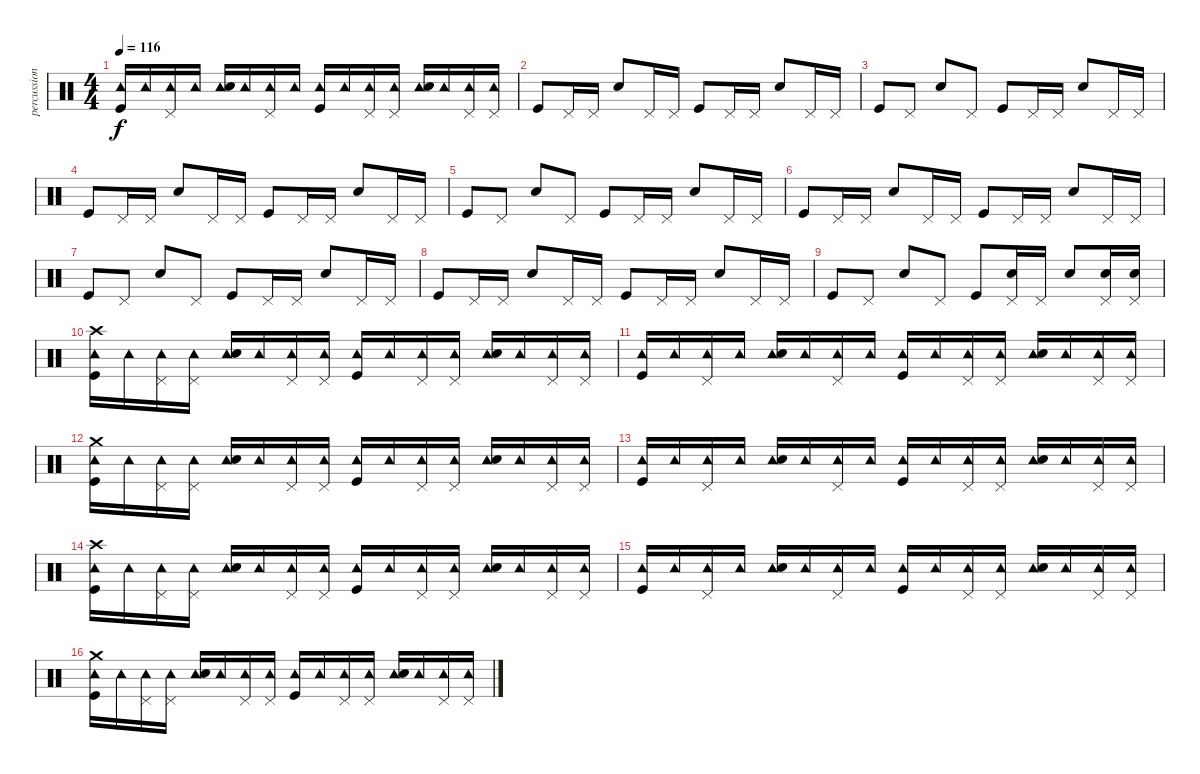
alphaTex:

\track ("percussion" "percussion") {instrument percussion}
\staff {score}
\articulation defaults
\ts (4 4)
\tempo 116
\clef neutral
\ks c
("Tambourine (hit)" "Kick (hit)").16{dy f} "Tambourine (hit)".16 ("Tambourine (hit)" "Pedal Hi-Hat (hit)").16 "Tambourine (hit)".16 ("Tambourine (hit)" "Electric Snare (hit)").16 "Tambourine (hit)".16 ("Tambourine (hit)" "Pedal Hi-Hat (hit)").16 "Tambourine (hit)".16 ("Tambourine (hit)" "Kick (hit)").16 "Tambourine (hit)".16 ("Tambourine (hit)" "Pedal Hi-Hat (hit)").16 ("Tambourine (hit)" "Pedal Hi-Hat (hit)").16 ("Tambourine (hit)" "Electric Snare (hit)").16 "Tambourine (hit)".16 ("Tambourine (hit)" "Pedal Hi-Hat (hit)").16 ("Tambourine (hit)" "Pedal Hi-Hat (hit)").16 |
"Kick (hit)".8 "Pedal Hi-Hat (hit)".16 "Pedal Hi-Hat (hit)".16 "Electric Snare (hit)".8 "Pedal Hi-Hat (hit)".16 "Pedal Hi-Hat (hit)".16 "Kick (hit)".8 "Pedal Hi-Hat (hit)".16 "Pedal Hi-Hat (hit)".16 "Electric Snare (hit)".8 "Pedal Hi-Hat (hit)".16 "Pedal Hi-Hat (hit)".16 |
"Kick (hit)".8 "Pedal Hi-Hat (hit)".8 "Electric Snare (hit)".8 "Pedal Hi-Hat (hit)".8 "Kick (hit)".8 "Pedal Hi-Hat (hit)".16 "Pedal Hi-Hat (hit)".16 "Electric Snare (hit)".8 "Pedal Hi-Hat (hit)".16 "Pedal Hi-Hat (hit)".16 |
"Kick (hit)".8 "Pedal Hi-Hat (hit)".16 "Pedal Hi-Hat (hit)".16 "Electric Snare (hit)".8 "Pedal Hi-Hat (hit)".16 "Pedal Hi-Hat (hit)".16 "Kick (hit)".8 "Pedal Hi-Hat (hit)".16 "Pedal Hi-Hat (hit)".16 "Electric Snare (hit)".8 "Pedal Hi-Hat (hit)".16 "Pedal Hi-Hat (hit)".16 |
"Kick (hit)".8 "Pedal Hi-Hat (hit)".8 "Electric Snare (hit)".8 "Pedal Hi-Hat (hit)".8 "Kick (hit)".8 "Pedal Hi-Hat (hit)".16 "Pedal Hi-Hat (hit)".16 "Electric Snare (hit)".8 "Pedal Hi-Hat (hit)".16 "Pedal Hi-Hat (hit)".16 |
"Kick (hit)".8 "Pedal Hi-Hat (hit)".16 "Pedal Hi-Hat (hit)".16 "Electric Snare (hit)".8 "Pedal Hi-Hat (hit)".16 "Pedal Hi-Hat (hit)".16 "Kick (hit)".8 "Pedal Hi-Hat (hit)".16 "Pedal Hi-Hat (hit)".16 "Electric Snare (hit)".8 "Pedal Hi-Hat (hit)".16 "Pedal Hi-Hat (hit)".16 |
"Kick (hit)".8 "Pedal Hi-Hat (hit)".8 "Electric Snare (hit)".8 "Pedal Hi-Hat (hit)".8 "Kick (hit)".8 "Pedal Hi-Hat (hit)".16 "Pedal Hi-Hat (hit)".16 "Electric Snare (hit)".8 "Pedal Hi-Hat (hit)".16 "Pedal Hi-Hat (hit)".16 |
"Kick (hit)".8 "Pedal Hi-Hat (hit)".16 "Pedal Hi-Hat (hit)".16 "Electric Snare (hit)".8 "Pedal Hi-Hat (hit)".16 "Pedal Hi-Hat (hit)".16 "Kick (hit)".8 "Pedal Hi-Hat (hit)".16 "Pedal Hi-Hat (hit)".16 "Electric Snare (hit)".8 "Pedal Hi-Hat (hit)".16 "Pedal Hi-Hat (hit)".16 |
"Kick (hit)".8 "Pedal Hi-Hat (hit)".8 "Electric Snare (hit)".8 "Pedal Hi-Hat (hit)".8 "Kick (hit)".8 ("Electric Snare (hit)" "Pedal Hi-Hat (hit)").16 "Pedal Hi-Hat (hit)".16 "Electric Snare (hit)".8 ("Electric Snare (hit)" "Pedal Hi-Hat (hit)").16 ("Electric Snare (hit)" "Pedal Hi-Hat (hit)").16 |
("Crash high (hit)" "Tambourine (hit)" "Kick (hit)").16 "Tambourine (hit)".16 ("Tambourine (hit)" "Pedal Hi-Hat (hit)").16 ("Tambourine (hit)" "Pedal Hi-Hat (hit)").16 ("Tambourine (hit)" "Electric Snare (hit)").16 "Tambourine (hit)".16 ("Tambourine (hit)" "Pedal Hi-Hat (hit)").16 ("Tambourine (hit)" "Pedal Hi-Hat (hit)").16 ("Tambourine (hit)" "Kick (hit)").16 "Tambourine (hit)".16 ("Tambourine (hit)" "Pedal Hi-Hat (hit)").16 ("Tambourine (hit)" "Pedal Hi-Hat (hit)").16 ("Tambourine (hit)" "Electric Snare (hit)").16 "Tambourine (hit)".16 ("Tambourine (hit)" "Pedal Hi-Hat (hit)").16 ("Tambourine (hit)" "Pedal Hi-Hat (hit)").16 |
("Tambourine (hit)" "Kick (hit)").16 "Tambourine (hit)".16 ("Tambourine (hit)" "Pedal Hi-Hat (hit)").16 "Tambourine (hit)".16 ("Tambourine (hit)" "Electric Snare (hit)").16 "Tambourine (hit)".16 ("Tambourine (hit)" "Pedal Hi-Hat (hit)").16 "Tambourine (hit)".16 ("Tambourine (hit)" "Kick (hit)").16 "Tambourine (hit)".16 ("Tambourine (hit)" "Pedal Hi-Hat (hit)").16 ("Tambourine (hit)" "Pedal Hi-Hat (hit)").16 ("Tambourine (hit)" "Electric Snare (hit)").16 "Tambourine (hit)".16 ("Tambourine (hit)" "Pedal Hi-Hat (hit)").16 ("Tambourine (hit)" "Pedal Hi-Hat (hit)").16 |
("Crash medium (hit)" "Tambourine (hit)" "Kick (hit)").16 "Tambourine (hit)".16 ("Tambourine (hit)" "Pedal Hi-Hat (hit)").16 ("Tambourine (hit)" "Pedal Hi-Hat (hit)").16 ("Tambourine (hit)" "Electric Snare (hit)").16 "Tambourine (hit)".16 ("Tambourine (hit)" "Pedal Hi-Hat (hit)").16 ("Tambourine (hit)" "Pedal Hi-Hat (hit)").16 ("Tambourine (hit)" "Kick (hit)").16 "Tambourine (hit)".16 ("Tambourine (hit)" "Pedal Hi-Hat (hit)").16 ("Tambourine (hit)" "Pedal Hi-Hat (hit)").16 ("Tambourine (hit)" "Electric Snare (hit)").16 "Tambourine (hit)".16 ("Tambourine (hit)" "Pedal Hi-Hat (hit)").16 ("Tambourine (hit)" "Pedal Hi-Hat (hit)").16 |
("Tambourine (hit)" "Kick (hit)").16 "Tambourine (hit)".16 ("Tambourine (hit)" "Pedal Hi-Hat (hit)").16 "Tambourine (hit)".16 ("Tambourine (hit)" "Electric Snare (hit)").16 "Tambourine (hit)".16 ("Tambourine (hit)" "Pedal Hi-Hat (hit)").16 "Tambourine (hit)".16 ("Tambourine (hit)" "Kick (hit)").16 "Tambourine (hit)".16 ("Tambourine (hit)" "Pedal Hi-Hat (hit)").16 ("Tambourine (hit)" "Pedal Hi-Hat (hit)").16 ("Tambourine (hit)" "Electric Snare (hit)").16 "Tambourine (hit)".16 ("Tambourine (hit)" "Pedal Hi-Hat (hit)").16 ("Tambourine (hit)" "Pedal Hi-Hat (hit)").16 |
("Crash high (hit)" "Tambourine (hit)" "Kick (hit)").16 "Tambourine (hit)".16 ("Tambourine (hit)" "Pedal Hi-Hat (hit)").16 ("Tambourine (hit)" "Pedal Hi-Hat (hit)").16 ("Tambourine (hit)" "Electric Snare (hit)").16 "Tambourine (hit)".16 ("Tambourine (hit)" "Pedal Hi-Hat (hit)").16 ("Tambourine (hit)" "Pedal Hi-Hat (hit)").16 ("Tambourine (hit)" "Kick (hit)").16 "Tambourine (hit)".16 ("Tambourine (hit)" "Pedal Hi-Hat (hit)").16 ("Tambourine (hit)" "Pedal Hi-Hat (hit)").16 ("Tambourine (hit)" "Electric Snare (hit)").16 "Tambourine (hit)".16 ("Tambourine (hit)" "Pedal Hi-Hat (hit)").16 ("Tambourine (hit)" "Pedal Hi-Hat (hit)").16 |
("Tambourine (hit)" "Kick (hit)").16 "Tambourine (hit)".16 ("Tambourine (hit)" "Pedal Hi-Hat (hit)").16 "Tambourine (hit)".16 ("Tambourine (hit)" "Electric Snare (hit)").16 "Tambourine (hit)".16 ("Tambourine (hit)" "Pedal Hi-Hat (hit)").16 "Tambourine (hit)".16 ("Tambourine (hit)" "Kick (hit)").16 "Tambourine (hit)".16 ("Tambourine (hit)" "Pedal Hi-Hat (hit)").16 ("Tambourine (hit)" "Pedal Hi-Hat (hit)").16 ("Tambourine (hit)" "Electric Snare (hit)").16 "Tambourine (hit)".16 ("Tambourine (hit)" "Pedal Hi-Hat (hit)").16 ("Tambourine (hit)" "Pedal Hi-Hat (hit)").16 |
("Crash medium (hit)" "Tambourine (hit)" "Kick (hit)").16 "Tambourine (hit)".16 ("Tambourine (hit)" "Pedal Hi-Hat (hit)").16 ("Tambourine (hit)" "Pedal Hi-Hat (hit)").16 ("Tambourine (hit)" "Electric Snare (hit)").16 "Tambourine (hit)".16 ("Tambourine (hit)" "Pedal Hi-Hat (hit)").16 ("Tambourine (hit)" "Pedal Hi-Hat (hit)").16 ("Tambourine (hit)" "Kick (hit)").16 "Tambourine (hit)".16 ("Tambourine (hit)" "Pedal Hi-Hat (hit)").16 ("Tambourine (hit)" "Pedal Hi-Hat (hit)").16 ("Tambourine (hit)" "Electric Snare (hit)").16 "Tambourine (hit)".16 ("Tambourine (hit)" "Pedal Hi-Hat (hit)").16 ("Tambourine (hit)" "Pedal Hi-Hat (hit)").16
